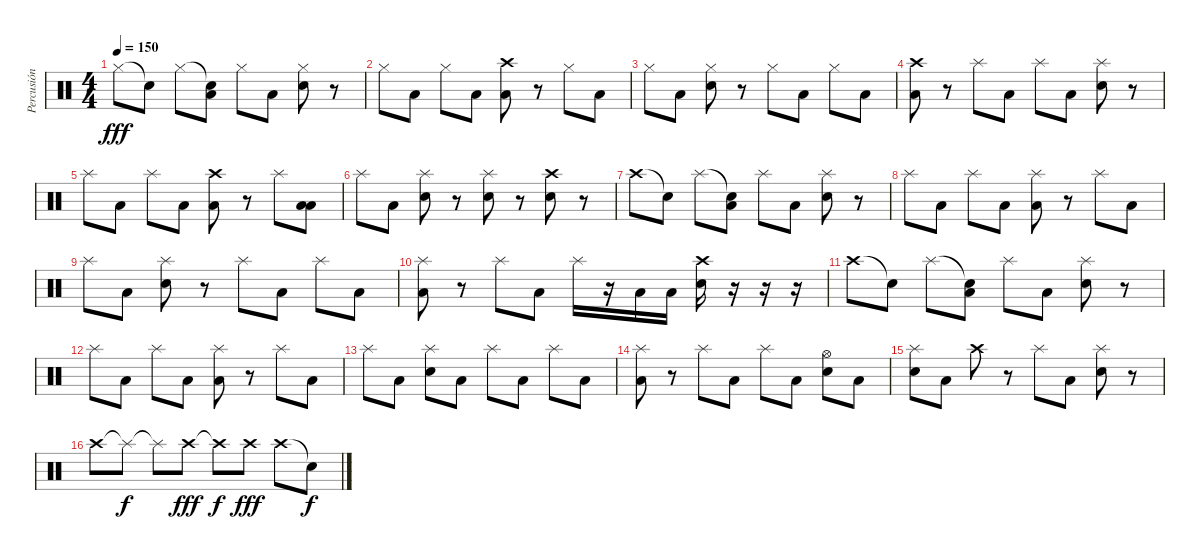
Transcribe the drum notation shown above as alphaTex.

\track ("Percusión" "Percusión") {instrument percussion}
\staff {score}
\articulation defaults
\ts (4 4)
\tempo 150
\clef neutral
\ks c "Hi-Hat (closed)".8{dy fff} "Snare (hit)"{t}.8 "Hi-Hat (closed)".8
("Snare (hit)"{t} "Low Tom (hit)").8 "Hi-Hat (closed)".8 "Low Tom (hit)".8 ("Hi-Hat (closed)" "Snare (hit) 2").8 r.8 |
"Hi-Hat (closed)".8 "Low Tom (hit)".8 "Hi-Hat (closed)".8 "Low Tom (hit)".8 ("Crash high (hit)" "Low Tom (hit)").8 r.8 "Hi-Hat (closed)".8 "Low Tom (hit)".8 |
"Hi-Hat (closed)".8 "Low Tom (hit)".8 ("Hi-Hat (closed)" "Snare (hit) 2").8 r.8 "Hi-Hat (closed)".8 "Low Tom (hit)".8 "Hi-Hat (closed)".8 "Low Tom (hit)".8 |
("Crash high (hit)" "Low Tom (hit)").8 r.8 "Splash (hit)".8 "Low Tom (hit)".8 "Splash (hit)".8 "Low Tom (hit)".8 ("Splash (hit)" "Snare (hit) 2").8 r.8 |
"Splash (hit)".8 "Low Tom (hit)".8 "Splash (hit)".8 "Low Tom (hit)".8 ("Crash high (hit)" "Low Tom (hit)").8 r.8 "Splash (hit)".8 ("Low Floor Tom (hit)" "Low Tom (hit)").8 |
"Splash (hit)".8 "Low Tom (hit)".8 ("Splash (hit)" "Snare (hit) 2").8 r.8 ("Splash (hit)" "Snare (hit) 2").8 r.8 ("Crash high (hit)" "Snare (hit) 2").8 r.8 |
"Crash high (hit)".8 "Snare (hit)"{t}.8 "Splash (hit)".8 ("Snare (hit)"{t} "Low Tom (hit)").8 "Splash (hit)".8 "Low Tom (hit)".8 ("Splash (hit)" "Snare (hit) 2").8 r.8 |
"Splash (hit)".8 "Low Tom (hit)".8 "Splash (hit)".8 "Low Tom (hit)".8 ("Splash (hit)" "Low Tom (hit)").8 r.8 "Splash (hit)".8 "Low Tom (hit)".8 |
"Splash (hit)".8 "Low Tom (hit)".8 ("Splash (hit)" "Snare (hit) 2").8 r.8 "Splash (hit)".8 "Low Tom (hit)".8 "Splash (hit)".8 "Low Tom (hit)".8 |
("Splash (hit)" "Low Tom (hit)").8 r.8 "Splash (hit)".8 "Low Tom (hit)".8 "Splash (hit)".16 r.16 "Low Tom (hit)".16 "Low Tom (hit)".16 ("Crash high (hit)" "Snare (hit) 2").16 r.16 r.16 r.16 |
"Crash high (hit)".8 "Snare (hit)"{t}.8 "Splash (hit)".8 ("Snare (hit)"{t} "Low Tom (hit)").8 "Splash (hit)".8 "Low Tom (hit)".8 ("Splash (hit)" "Snare (hit) 2").8 r.8 |
"Splash (hit)".8 "Low Tom (hit)".8 "Splash (hit)".8 "Low Tom (hit)".8 ("Splash (hit)" "Low Tom (hit)").8 r.8 "Splash (hit)".8 "Low Tom (hit)".8 |
"Splash (hit)".8 "Low Tom (hit)".8 ("Splash (hit)" "Snare (hit) 2").8 "Low Tom (hit)".8 "Splash (hit)".8 "Low Tom (hit)".8 "Splash (hit)".8 "Low Tom (hit)".8 |
("Splash (hit)" "Low Tom (hit)").8 r.8 "Splash (hit)".8 "Low Tom (hit)".8 "Splash (hit)".8 "Low Tom (hit)".8 ("Hi-Hat (open)" "Snare (hit) 2").8 "Low Tom (hit)".8 |
("Splash (hit)" "Snare (hit) 2").8 "Low Tom (hit)".8 "Crash high (hit)".8 r.8 "Splash (hit)".8 "Low Tom (hit)".8 ("Splash (hit)" "Snare (hit) 2").8 r.8 |
"Crash high (hit)".8 "Splash (hit)"{t}.8{dy f} "Splash (hit)"{t}.8 "Crash high (hit)".8{dy fff} "Crash high (hit)"{t}.8{dy f} "Crash high (hit)".8{dy fff} "Crash high (hit)".8 "Snare (hit)"{t}.8{dy f}
